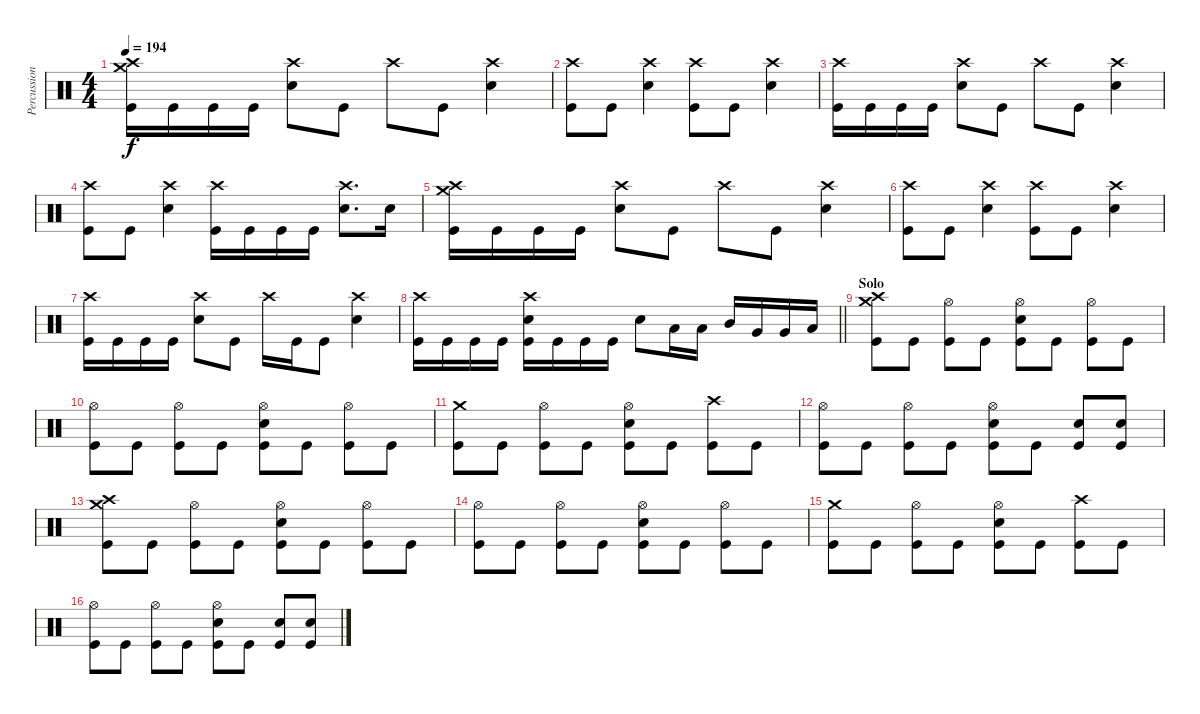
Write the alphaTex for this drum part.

\track ("Percussion" "Percussion") {instrument percussion}
\staff {score}
\articulation defaults
\ts (4 4)
\tempo 194
\clef neutral
\ks c
("Crash high (hit)" "Crash medium (hit)" "Kick (hit)").16{dy f} "Kick (hit)".16 "Kick (hit)".16 "Kick (hit)".16 ("Crash high (hit)" "Electric Snare (hit)").8 "Kick (hit)".8 "Crash high (hit)".8 "Kick (hit)".8 ("Crash high (hit)" "Electric Snare (hit)").4 |
("Crash high (hit)" "Kick (hit)").8 "Kick (hit)".8 ("Crash high (hit)" "Electric Snare (hit)").4 ("Crash high (hit)" "Kick (hit)").8 "Kick (hit)".8 ("Crash high (hit)" "Electric Snare (hit)").4 |
("Crash high (hit)" "Kick (hit)").16 "Kick (hit)".16 "Kick (hit)".16 "Kick (hit)".16 ("Crash high (hit)" "Electric Snare (hit)").8 "Kick (hit)".8 "Crash high (hit)".8 "Kick (hit)".8 ("Crash high (hit)" "Electric Snare (hit)").4 |
("Crash high (hit)" "Kick (hit)").8 "Kick (hit)".8 ("Crash high (hit)" "Electric Snare (hit)").4 ("Crash high (hit)" "Kick (hit)").16 "Kick (hit)".16 "Kick (hit)".16 "Kick (hit)".16 ("Crash high (hit)" "Electric Snare (hit)").8{d} "Electric Snare (hit)".16 |
("Crash high (hit)" "Crash medium (hit)" "Kick (hit)").16 "Kick (hit)".16 "Kick (hit)".16 "Kick (hit)".16 ("Crash high (hit)" "Electric Snare (hit)").8 "Kick (hit)".8 "Crash high (hit)".8 "Kick (hit)".8 ("Crash high (hit)" "Electric Snare (hit)").4 |
("Crash high (hit)" "Kick (hit)").8 "Kick (hit)".8 ("Crash high (hit)" "Electric Snare (hit)").4 ("Crash high (hit)" "Kick (hit)").8 "Kick (hit)".8 ("Crash high (hit)" "Electric Snare (hit)").4 |
("Crash high (hit)" "Kick (hit)").16 "Kick (hit)".16 "Kick (hit)".16 "Kick (hit)".16 ("Crash high (hit)" "Electric Snare (hit)").8 "Kick (hit)".8 "Crash high (hit)".16 "Kick (hit)".16 "Kick (hit)".8 ("Crash high (hit)" "Electric Snare (hit)").4 |
\barLineRight lightlight
("Crash high (hit)" "Kick (hit)").16 "Kick (hit)".16 "Kick (hit)".16 "Kick (hit)".16 ("Crash high (hit)" "Electric Snare (hit)" "Kick (hit)").16 "Kick (hit)".16 "Kick (hit)".16 "Kick (hit)".16 "Electric Snare (hit)".8 "Low Tom (hit)".16 "Low Tom (hit)".16 "Mid Tom (hit)".16 "Very Low Tom (hit)".16 "Very Low Tom (hit)".16 "Low Floor Tom (hit)".16 |
\section ("" "Solo")
("Crash medium (hit)" "Crash high (hit)" "Kick (hit)").8 "Kick (hit)".8 ("Hi-Hat (open)" "Kick (hit)").8 "Kick (hit)".8 ("Hi-Hat (open)" "Electric Snare (hit)" "Kick (hit)").8 "Kick (hit)".8 ("Hi-Hat (open)" "Kick (hit)").8 "Kick (hit)".8 |
("Hi-Hat (open)" "Kick (hit)").8 "Kick (hit)".8 ("Hi-Hat (open)" "Kick (hit)").8 "Kick (hit)".8 ("Hi-Hat (open)" "Electric Snare (hit)" "Kick (hit)").8 "Kick (hit)".8 ("Hi-Hat (open)" "Kick (hit)").8 "Kick (hit)".8 |
("Crash medium (hit)" "Kick (hit)").8 "Kick (hit)".8 ("Hi-Hat (open)" "Kick (hit)").8 "Kick (hit)".8 ("Hi-Hat (open)" "Electric Snare (hit)" "Kick (hit)").8 "Kick (hit)".8 ("Crash high (hit)" "Kick (hit)").8 "Kick (hit)".8 |
("Hi-Hat (open)" "Kick (hit)").8 "Kick (hit)".8 ("Hi-Hat (open)" "Kick (hit)").8 "Kick (hit)".8 ("Hi-Hat (open)" "Electric Snare (hit)" "Kick (hit)").8 "Kick (hit)".8 ("Electric Snare (hit)" "Kick (hit)").8 ("Electric Snare (hit)" "Kick (hit)").8 |
("Crash medium (hit)" "Crash high (hit)" "Kick (hit)").8 "Kick (hit)".8 ("Hi-Hat (open)" "Kick (hit)").8 "Kick (hit)".8 ("Hi-Hat (open)" "Electric Snare (hit)" "Kick (hit)").8 "Kick (hit)".8 ("Hi-Hat (open)" "Kick (hit)").8 "Kick (hit)".8 |
("Hi-Hat (open)" "Kick (hit)").8 "Kick (hit)".8 ("Hi-Hat (open)" "Kick (hit)").8 "Kick (hit)".8 ("Hi-Hat (open)" "Electric Snare (hit)" "Kick (hit)").8 "Kick (hit)".8 ("Hi-Hat (open)" "Kick (hit)").8 "Kick (hit)".8 |
("Crash medium (hit)" "Kick (hit)").8 "Kick (hit)".8 ("Hi-Hat (open)" "Kick (hit)").8 "Kick (hit)".8 ("Hi-Hat (open)" "Electric Snare (hit)" "Kick (hit)").8 "Kick (hit)".8 ("Crash high (hit)" "Kick (hit)").8 "Kick (hit)".8 |
("Hi-Hat (open)" "Kick (hit)").8 "Kick (hit)".8 ("Hi-Hat (open)" "Kick (hit)").8 "Kick (hit)".8 ("Hi-Hat (open)" "Electric Snare (hit)" "Kick (hit)").8 "Kick (hit)".8 ("Electric Snare (hit)" "Kick (hit)").8 ("Electric Snare (hit)" "Kick (hit)").8
